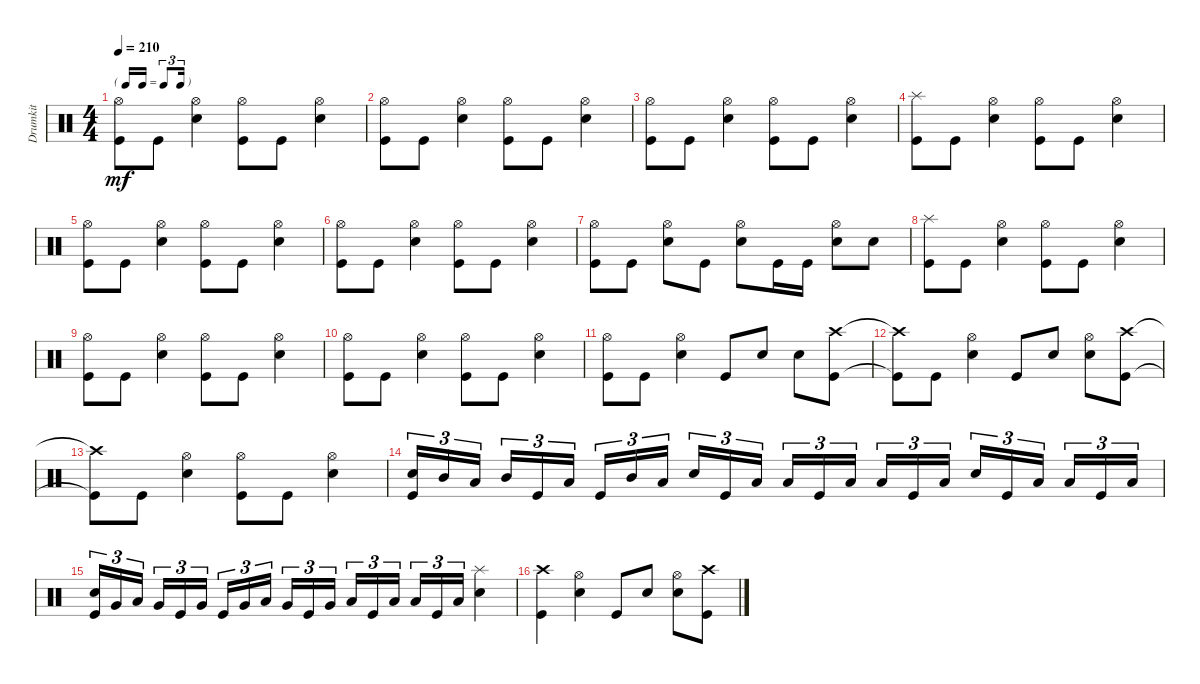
\track ("Drumkit" "Drumkit") {instrument percussion}
\staff {score}
\articulation defaults
\ts (4 4)
\tf triplet16th
\tempo 210
\clef neutral
\ks c
("Kick (hit)" "Hi-Hat (open)").8{dy mf} "Kick (hit)".8 ("Snare (hit) 2" "Hi-Hat (open)").4 ("Kick (hit)" "Hi-Hat (open)").8 "Kick (hit)".8 ("Snare (hit) 2" "Hi-Hat (open)").4 |
("Kick (hit)" "Hi-Hat (open)").8 "Kick (hit)".8 ("Snare (hit) 2" "Hi-Hat (open)").4 ("Kick (hit)" "Hi-Hat (open)").8 "Kick (hit)".8 ("Snare (hit) 2" "Hi-Hat (open)").4 |
("Kick (hit)" "Hi-Hat (open)").8 "Kick (hit)".8 ("Snare (hit) 2" "Hi-Hat (open)").4 ("Kick (hit)" "Hi-Hat (open)").8 "Kick (hit)".8 ("Snare (hit) 2" "Hi-Hat (open)").4 |
("Kick (hit)" "Splash (hit)").8 "Kick (hit)".8 ("Snare (hit) 2" "Hi-Hat (open)").4 ("Kick (hit)" "Hi-Hat (open)").8 "Kick (hit)".8 ("Snare (hit) 2" "Hi-Hat (open)").4 |
("Kick (hit)" "Hi-Hat (open)").8 "Kick (hit)".8 ("Snare (hit) 2" "Hi-Hat (open)").4 ("Kick (hit)" "Hi-Hat (open)").8 "Kick (hit)".8 ("Snare (hit) 2" "Hi-Hat (open)").4 |
("Kick (hit)" "Hi-Hat (open)").8 "Kick (hit)".8 ("Snare (hit) 2" "Hi-Hat (open)").4 ("Kick (hit)" "Hi-Hat (open)").8 "Kick (hit)".8 ("Snare (hit) 2" "Hi-Hat (open)").4 |
("Kick (hit)" "Hi-Hat (open)").8 "Kick (hit)".8 ("Snare (hit) 2" "Hi-Hat (open)").8 "Kick (hit)".8 ("Snare (hit) 2" "Hi-Hat (open)").8 "Kick (hit)".16 "Kick (hit)".16 ("Snare (hit) 2" "Hi-Hat (open)").8 "Snare (hit) 2".8 |
("Kick (hit)" "Splash (hit)").8 "Kick (hit)".8 ("Snare (hit) 2" "Hi-Hat (open)").4 ("Kick (hit)" "Hi-Hat (open)").8 "Kick (hit)".8 ("Snare (hit) 2" "Hi-Hat (open)").4 |
("Kick (hit)" "Hi-Hat (open)").8 "Kick (hit)".8 ("Snare (hit) 2" "Hi-Hat (open)").4 ("Kick (hit)" "Hi-Hat (open)").8 "Kick (hit)".8 ("Snare (hit) 2" "Hi-Hat (open)").4 |
("Kick (hit)" "Hi-Hat (open)").8 "Kick (hit)".8 ("Snare (hit) 2" "Hi-Hat (open)").4 ("Kick (hit)" "Hi-Hat (open)").8 "Kick (hit)".8 ("Snare (hit) 2" "Hi-Hat (open)").4 |
("Kick (hit)" "Hi-Hat (open)").8 "Kick (hit)".8 ("Snare (hit) 2" "Hi-Hat (open)").4 "Kick (hit)".8 "Snare (hit) 2".8 "Snare (hit) 2".8 ("Kick (hit)" "Crash high (hit)").8 |
("Kick (hit)"{t} "Crash high (hit)"{t}).8 "Kick (hit)".8 ("Snare (hit) 2" "Hi-Hat (open)").4 "Kick (hit)".8 "Snare (hit) 2".8 ("Snare (hit) 2" "Hi-Hat (open)").8 ("Kick (hit)" "Crash high (hit)").8 |
("Kick (hit)"{t} "Crash high (hit)"{t}).8 "Kick (hit)".8 ("Snare (hit) 2" "Hi-Hat (open)").4 ("Kick (hit)" "Hi-Hat (open)").8 "Kick (hit)".8 ("Snare (hit) 2" "Hi-Hat (open)").4 |
("Snare (hit) 2" "Kick (hit)").16{tu (3 2)} "Mid Tom (hit)".16{tu (3 2)} "Low Tom (hit)".16{tu (3 2) beam splitsecondary} "Mid Tom (hit)".16{tu (3 2)} "Kick (hit)".16{tu (3 2)} "Low Tom (hit)".16{tu (3 2)} "Kick (hit)".16{tu (3 2)} "Mid Tom (hit)".16{tu (3 2)} "Low Tom (hit)".16{tu (3 2) beam splitsecondary} "Snare (hit) 2".16{tu (3 2)} "Kick (hit)".16{tu (3 2)} "Low Tom (hit)".16{tu (3 2)} "Low Tom (hit)".16{tu (3 2)} "Kick (hit)".16{tu (3 2)} "Low Tom (hit)".16{tu (3 2) beam splitsecondary} "Low Tom (hit)".16{tu (3 2)} "Kick (hit)".16{tu (3 2)} "Low Tom (hit)".16{tu (3 2)} "Snare (hit) 2".16{tu (3 2)} "Kick (hit)".16{tu (3 2)} "Low Tom (hit)".16{tu (3 2) beam splitsecondary} "Low Tom (hit)".16{tu (3 2)} "Kick (hit)".16{tu (3 2)} "Low Tom (hit)".16{tu (3 2)} |
("Snare (hit) 2" "Kick (hit)").16{tu (3 2)} "Very Low Tom (hit)".16{tu (3 2)} "Low Floor Tom (hit)".16{tu (3 2) beam splitsecondary} "Very Low Tom (hit)".16{tu (3 2)} "Kick (hit)".16{tu (3 2)} "Very Low Tom (hit)".16{tu (3 2)} "Kick (hit)".16{tu (3 2)} "Very Low Tom (hit)".16{tu (3 2)} "Low Floor Tom (hit)".16{tu (3 2) beam splitsecondary} "Very Low Tom (hit)".16{tu (3 2)} "Kick (hit)".16{tu (3 2)} "Very Low Tom (hit)".16{tu (3 2)} "Low Floor Tom (hit)".16{tu (3 2)} "Kick (hit)".16{tu (3 2)} "Low Tom (hit)".16{tu (3 2) beam splitsecondary} "Low Tom (hit)".16{tu (3 2)} "Kick (hit)".16{tu (3 2)} "Low Tom (hit)".16{tu (3 2)} ("Snare (hit) 2" "Splash (hit)").4 |
("Kick (hit)" "Crash high (hit)").4 ("Snare (hit) 2" "Hi-Hat (open)").4 "Kick (hit)".8 "Snare (hit) 2".8 ("Snare (hit) 2" "Hi-Hat (open)").8 ("Kick (hit)" "Crash high (hit)").8
